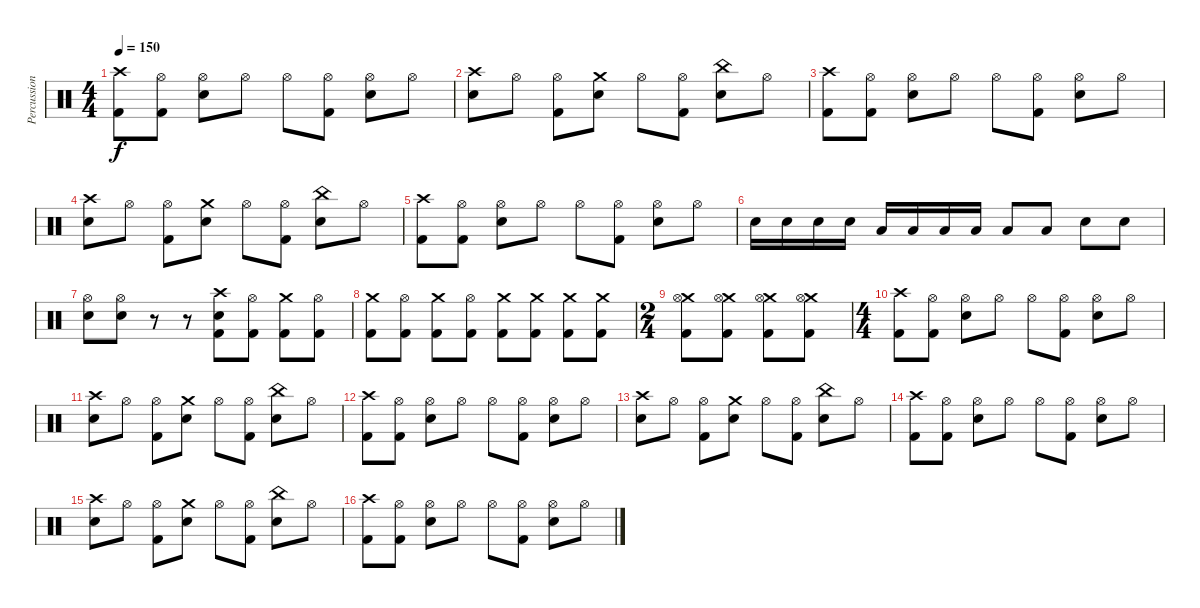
\track ("Percussioni" "Percussion") {instrument percussion}
\staff {score}
\articulation defaults
\ts (4 4)
\tempo 150
\clef neutral
\ks c
("Crash high (hit)" "Kick (hit) 2").8{dy f} ("Hi-Hat (open)" "Kick (hit) 2").8 ("Hi-Hat (open)" "Snare (hit) 2").8 "Hi-Hat (open)".8 "Hi-Hat (open)".8 ("Hi-Hat (open)" "Kick (hit) 2").8 ("Hi-Hat (open)" "Snare (hit) 2").8 "Hi-Hat (open)".8 |
("Crash high (hit)" "Snare (hit) 2").8 "Hi-Hat (open)".8 ("Hi-Hat (open)" "Kick (hit) 2").8 ("Crash medium (hit)" "Snare (hit) 2").8 "Hi-Hat (open)".8 ("Hi-Hat (open)" "Kick (hit) 2").8 ("China (hit)" "Snare (hit) 2").8 "Hi-Hat (open)".8 |
("Crash high (hit)" "Kick (hit) 2").8 ("Hi-Hat (open)" "Kick (hit) 2").8 ("Hi-Hat (open)" "Snare (hit) 2").8 "Hi-Hat (open)".8 "Hi-Hat (open)".8 ("Hi-Hat (open)" "Kick (hit) 2").8 ("Hi-Hat (open)" "Snare (hit) 2").8 "Hi-Hat (open)".8 |
("Crash high (hit)" "Snare (hit) 2").8 "Hi-Hat (open)".8 ("Hi-Hat (open)" "Kick (hit) 2").8 ("Crash medium (hit)" "Snare (hit) 2").8 "Hi-Hat (open)".8 ("Hi-Hat (open)" "Kick (hit) 2").8 ("China (hit)" "Snare (hit) 2").8 "Hi-Hat (open)".8 |
("Crash high (hit)" "Kick (hit) 2").8 ("Hi-Hat (open)" "Kick (hit) 2").8 ("Hi-Hat (open)" "Snare (hit) 2").8 "Hi-Hat (open)".8 "Hi-Hat (open)".8 ("Hi-Hat (open)" "Kick (hit) 2").8 ("Hi-Hat (open)" "Snare (hit) 2").8 "Hi-Hat (open)".8 |
"Snare (hit) 2".16 "Snare (hit) 2".16 "Snare (hit) 2".16 "Snare (hit) 2".16 "Low Tom (hit)".16 "Low Tom (hit)".16 "Low Tom (hit)".16 "Low Tom (hit)".16 "Low Tom (hit)".8 "Low Tom (hit)".8 "Snare (hit) 2".8 "Snare (hit) 2".8 |
("Hi-Hat (open)" "Snare (hit) 2").8 ("Hi-Hat (open)" "Snare (hit) 2").8 r.8 r.8 ("Crash high (hit)" "Snare (hit) 2" "Kick (hit) 2").8 ("Hi-Hat (open)" "Kick (hit) 2").8 ("Crash medium (hit)" "Kick (hit) 2").8 ("Hi-Hat (open)" "Kick (hit) 2").8 |
("Crash medium (hit)" "Kick (hit) 2").8 ("Hi-Hat (open)" "Kick (hit) 2").8 ("Crash medium (hit)" "Kick (hit) 2").8 ("Hi-Hat (open)" "Kick (hit) 2").8 ("Crash medium (hit)" "Kick (hit) 2").8 ("Crash medium (hit)" "Kick (hit) 2").8 ("Crash medium (hit)" "Kick (hit) 2").8 ("Crash medium (hit)" "Kick (hit) 2").8 |
\ts (2 4)
("Crash medium (hit)" "Hi-Hat (open)" "Kick (hit) 2").8 ("Crash medium (hit)" "Hi-Hat (open)" "Kick (hit) 2").8 ("Crash medium (hit)" "Hi-Hat (open)" "Kick (hit) 2").8 ("Crash medium (hit)" "Hi-Hat (open)" "Kick (hit) 2").8 |
\ts (4 4)
("Crash high (hit)" "Kick (hit) 2").8 ("Hi-Hat (open)" "Kick (hit) 2").8 ("Hi-Hat (open)" "Snare (hit) 2").8 "Hi-Hat (open)".8 "Hi-Hat (open)".8 ("Hi-Hat (open)" "Kick (hit) 2").8 ("Hi-Hat (open)" "Snare (hit) 2").8 "Hi-Hat (open)".8 |
("Crash high (hit)" "Snare (hit) 2").8 "Hi-Hat (open)".8 ("Hi-Hat (open)" "Kick (hit) 2").8 ("Crash medium (hit)" "Snare (hit) 2").8 "Hi-Hat (open)".8 ("Hi-Hat (open)" "Kick (hit) 2").8 ("China (hit)" "Snare (hit) 2").8 "Hi-Hat (open)".8 |
("Crash high (hit)" "Kick (hit) 2").8 ("Hi-Hat (open)" "Kick (hit) 2").8 ("Hi-Hat (open)" "Snare (hit) 2").8 "Hi-Hat (open)".8 "Hi-Hat (open)".8 ("Hi-Hat (open)" "Kick (hit) 2").8 ("Hi-Hat (open)" "Snare (hit) 2").8 "Hi-Hat (open)".8 |
("Crash high (hit)" "Snare (hit) 2").8 "Hi-Hat (open)".8 ("Hi-Hat (open)" "Kick (hit) 2").8 ("Crash medium (hit)" "Snare (hit) 2").8 "Hi-Hat (open)".8 ("Hi-Hat (open)" "Kick (hit) 2").8 ("China (hit)" "Snare (hit) 2").8 "Hi-Hat (open)".8 |
("Crash high (hit)" "Kick (hit) 2").8 ("Hi-Hat (open)" "Kick (hit) 2").8 ("Hi-Hat (open)" "Snare (hit) 2").8 "Hi-Hat (open)".8 "Hi-Hat (open)".8 ("Hi-Hat (open)" "Kick (hit) 2").8 ("Hi-Hat (open)" "Snare (hit) 2").8 "Hi-Hat (open)".8 |
("Crash high (hit)" "Snare (hit) 2").8 "Hi-Hat (open)".8 ("Hi-Hat (open)" "Kick (hit) 2").8 ("Crash medium (hit)" "Snare (hit) 2").8 "Hi-Hat (open)".8 ("Hi-Hat (open)" "Kick (hit) 2").8 ("China (hit)" "Snare (hit) 2").8 "Hi-Hat (open)".8 |
("Crash high (hit)" "Kick (hit) 2").8 ("Hi-Hat (open)" "Kick (hit) 2").8 ("Hi-Hat (open)" "Snare (hit) 2").8 "Hi-Hat (open)".8 "Hi-Hat (open)".8 ("Hi-Hat (open)" "Kick (hit) 2").8 ("Hi-Hat (open)" "Snare (hit) 2").8 "Hi-Hat (open)".8
